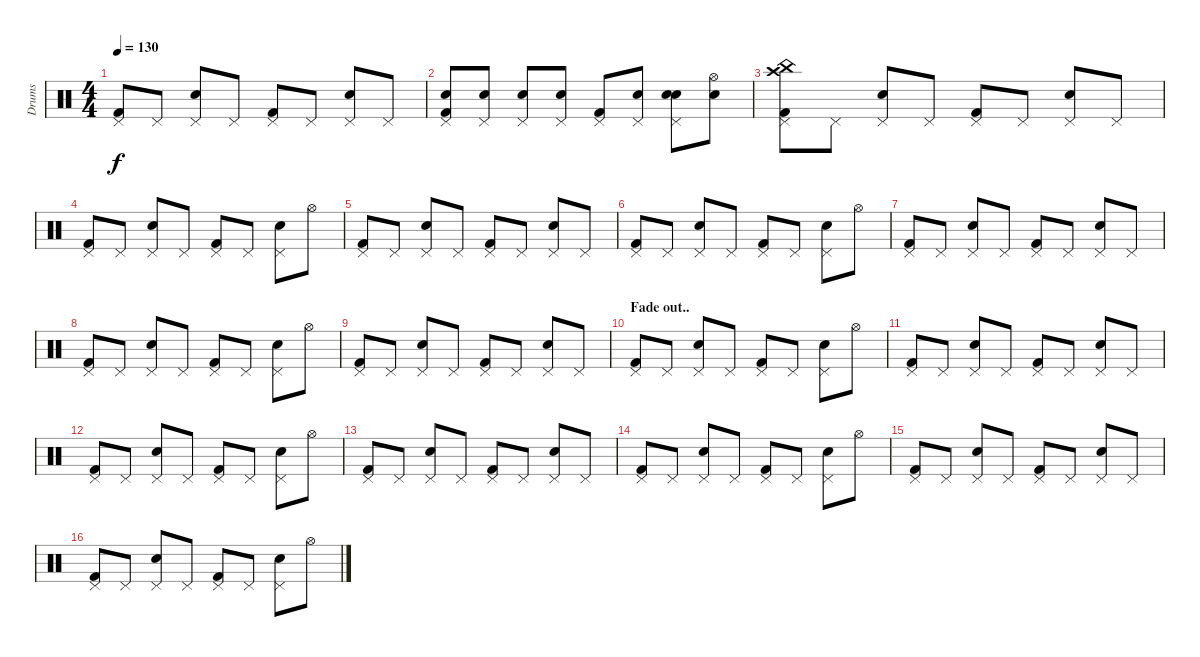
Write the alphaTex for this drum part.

\track ("Drums" "Drums") {instrument percussion}
\staff {score}
\articulation defaults
\ts (4 4)
\tempo 130
\clef neutral
\ks c
("Pedal Hi-Hat (hit)" "Kick (hit) 2").8{dy f} "Pedal Hi-Hat (hit)".8 ("Pedal Hi-Hat (hit)" "Snare (hit) 2").8 "Pedal Hi-Hat (hit)".8 ("Pedal Hi-Hat (hit)" "Kick (hit) 2").8 "Pedal Hi-Hat (hit)".8 ("Pedal Hi-Hat (hit)" "Snare (hit) 2").8 "Pedal Hi-Hat (hit)".8 |
("Pedal Hi-Hat (hit)" "Snare (hit) 2" "Kick (hit) 2").8 ("Pedal Hi-Hat (hit)" "Snare (hit) 2").8 ("Pedal Hi-Hat (hit)" "Snare (hit) 2").8 ("Pedal Hi-Hat (hit)" "Snare (hit) 2").8 ("Pedal Hi-Hat (hit)" "Kick (hit) 2").8 ("Pedal Hi-Hat (hit)" "Snare (hit) 2").8 ("Pedal Hi-Hat (hit)" "Snare (hit) 2" "Snare (hit) 2").8 ("Hi-Hat (open)" "Snare (hit) 2").8 |
("China (hit)" "Pedal Hi-Hat (hit)" "Crash high (hit)" "Kick (hit) 2").8 "Pedal Hi-Hat (hit)".8 ("Pedal Hi-Hat (hit)" "Snare (hit) 2").8 "Pedal Hi-Hat (hit)".8 ("Pedal Hi-Hat (hit)" "Kick (hit) 2").8 "Pedal Hi-Hat (hit)".8 ("Pedal Hi-Hat (hit)" "Snare (hit) 2").8 "Pedal Hi-Hat (hit)".8 |
("Pedal Hi-Hat (hit)" "Kick (hit) 2").8 "Pedal Hi-Hat (hit)".8 ("Pedal Hi-Hat (hit)" "Snare (hit) 2").8 "Pedal Hi-Hat (hit)".8 ("Pedal Hi-Hat (hit)" "Kick (hit) 2").8 "Pedal Hi-Hat (hit)".8 ("Pedal Hi-Hat (hit)" "Snare (hit) 2").8 "Hi-Hat (open)".8 |
("Pedal Hi-Hat (hit)" "Kick (hit) 2").8 "Pedal Hi-Hat (hit)".8 ("Pedal Hi-Hat (hit)" "Snare (hit) 2").8 "Pedal Hi-Hat (hit)".8 ("Pedal Hi-Hat (hit)" "Kick (hit) 2").8 "Pedal Hi-Hat (hit)".8 ("Pedal Hi-Hat (hit)" "Snare (hit) 2").8 "Pedal Hi-Hat (hit)".8 |
("Pedal Hi-Hat (hit)" "Kick (hit) 2").8 "Pedal Hi-Hat (hit)".8 ("Pedal Hi-Hat (hit)" "Snare (hit) 2").8 "Pedal Hi-Hat (hit)".8 ("Pedal Hi-Hat (hit)" "Kick (hit) 2").8 "Pedal Hi-Hat (hit)".8 ("Pedal Hi-Hat (hit)" "Snare (hit) 2").8 "Hi-Hat (open)".8 |
("Pedal Hi-Hat (hit)" "Kick (hit) 2").8 "Pedal Hi-Hat (hit)".8 ("Pedal Hi-Hat (hit)" "Snare (hit) 2").8 "Pedal Hi-Hat (hit)".8 ("Pedal Hi-Hat (hit)" "Kick (hit) 2").8 "Pedal Hi-Hat (hit)".8 ("Pedal Hi-Hat (hit)" "Snare (hit) 2").8 "Pedal Hi-Hat (hit)".8 |
("Pedal Hi-Hat (hit)" "Kick (hit) 2").8 "Pedal Hi-Hat (hit)".8 ("Pedal Hi-Hat (hit)" "Snare (hit) 2").8 "Pedal Hi-Hat (hit)".8 ("Pedal Hi-Hat (hit)" "Kick (hit) 2").8 "Pedal Hi-Hat (hit)".8 ("Pedal Hi-Hat (hit)" "Snare (hit) 2").8 "Hi-Hat (open)".8 |
("Pedal Hi-Hat (hit)" "Kick (hit) 2").8 "Pedal Hi-Hat (hit)".8 ("Pedal Hi-Hat (hit)" "Snare (hit) 2").8 "Pedal Hi-Hat (hit)".8 ("Pedal Hi-Hat (hit)" "Kick (hit) 2").8 "Pedal Hi-Hat (hit)".8 ("Pedal Hi-Hat (hit)" "Snare (hit) 2").8 "Pedal Hi-Hat (hit)".8 |
\section ("" "Fade out..")
("Pedal Hi-Hat (hit)" "Kick (hit) 2").8 "Pedal Hi-Hat (hit)".8 ("Pedal Hi-Hat (hit)" "Snare (hit) 2").8 "Pedal Hi-Hat (hit)".8 ("Pedal Hi-Hat (hit)" "Kick (hit) 2").8 "Pedal Hi-Hat (hit)".8 ("Pedal Hi-Hat (hit)" "Snare (hit) 2").8 "Hi-Hat (open)".8 |
("Pedal Hi-Hat (hit)" "Kick (hit) 2").8 "Pedal Hi-Hat (hit)".8 ("Pedal Hi-Hat (hit)" "Snare (hit) 2").8 "Pedal Hi-Hat (hit)".8 ("Pedal Hi-Hat (hit)" "Kick (hit) 2").8 "Pedal Hi-Hat (hit)".8 ("Pedal Hi-Hat (hit)" "Snare (hit) 2").8 "Pedal Hi-Hat (hit)".8 |
("Pedal Hi-Hat (hit)" "Kick (hit) 2").8 "Pedal Hi-Hat (hit)".8 ("Pedal Hi-Hat (hit)" "Snare (hit) 2").8 "Pedal Hi-Hat (hit)".8 ("Pedal Hi-Hat (hit)" "Kick (hit) 2").8 "Pedal Hi-Hat (hit)".8 ("Pedal Hi-Hat (hit)" "Snare (hit) 2").8 "Hi-Hat (open)".8 |
("Pedal Hi-Hat (hit)" "Kick (hit) 2").8 "Pedal Hi-Hat (hit)".8 ("Pedal Hi-Hat (hit)" "Snare (hit) 2").8 "Pedal Hi-Hat (hit)".8 ("Pedal Hi-Hat (hit)" "Kick (hit) 2").8 "Pedal Hi-Hat (hit)".8 ("Pedal Hi-Hat (hit)" "Snare (hit) 2").8 "Pedal Hi-Hat (hit)".8 |
("Pedal Hi-Hat (hit)" "Kick (hit) 2").8 "Pedal Hi-Hat (hit)".8 ("Pedal Hi-Hat (hit)" "Snare (hit) 2").8 "Pedal Hi-Hat (hit)".8 ("Pedal Hi-Hat (hit)" "Kick (hit) 2").8 "Pedal Hi-Hat (hit)".8 ("Pedal Hi-Hat (hit)" "Snare (hit) 2").8 "Hi-Hat (open)".8 |
("Pedal Hi-Hat (hit)" "Kick (hit) 2").8 "Pedal Hi-Hat (hit)".8 ("Pedal Hi-Hat (hit)" "Snare (hit) 2").8 "Pedal Hi-Hat (hit)".8 ("Pedal Hi-Hat (hit)" "Kick (hit) 2").8 "Pedal Hi-Hat (hit)".8 ("Pedal Hi-Hat (hit)" "Snare (hit) 2").8 "Pedal Hi-Hat (hit)".8 |
("Pedal Hi-Hat (hit)" "Kick (hit) 2").8 "Pedal Hi-Hat (hit)".8 ("Pedal Hi-Hat (hit)" "Snare (hit) 2").8 "Pedal Hi-Hat (hit)".8 ("Pedal Hi-Hat (hit)" "Kick (hit) 2").8 "Pedal Hi-Hat (hit)".8 ("Pedal Hi-Hat (hit)" "Snare (hit) 2").8 "Hi-Hat (open)".8
